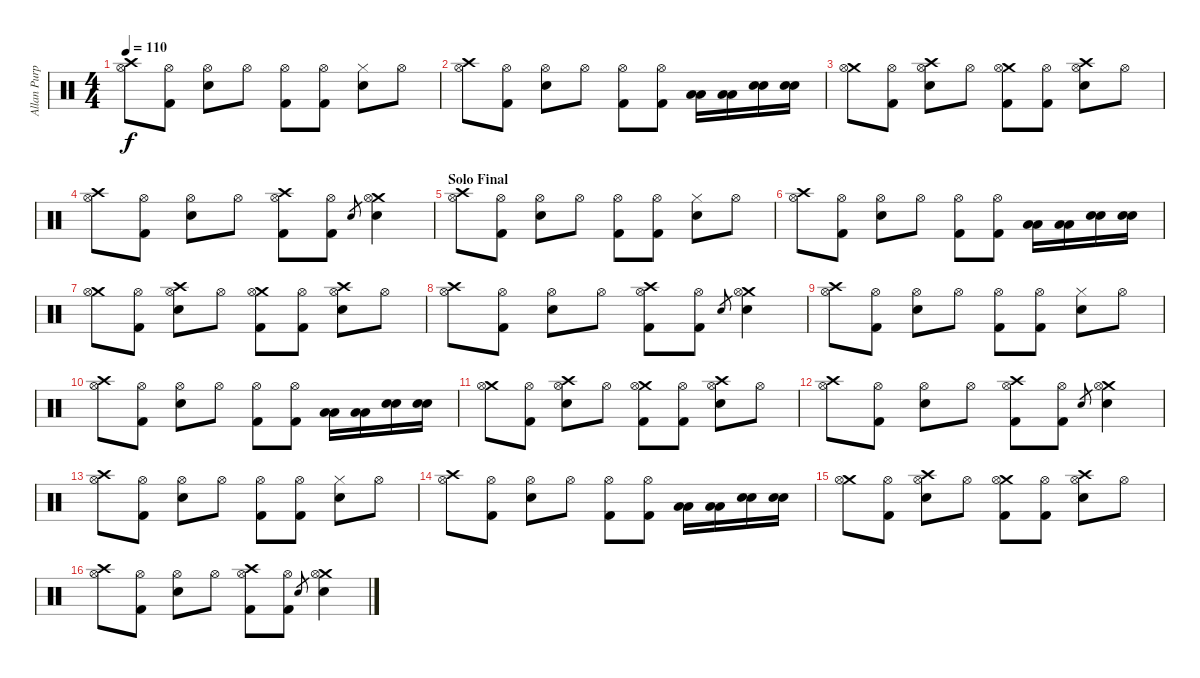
\track ("Allan Purple" "Allan Purp") {instrument percussion}
\staff {score}
\articulation defaults
\ts (4 4)
\tempo 110
\clef neutral
\ks c
("Crash high (hit)" "Hi-Hat (open)").8{dy f} ("Hi-Hat (open)" "Kick (hit) 2").8 ("Hi-Hat (open)" "Electric Snare (hit)").8 "Hi-Hat (open)".8 ("Hi-Hat (open)" "Kick (hit) 2").8 ("Hi-Hat (open)" "Kick (hit) 2").8 ("Hi-Hat (closed)" "Electric Snare (hit)").8 "Hi-Hat (open)".8 |
("Crash high (hit)" "Hi-Hat (open)").8 ("Hi-Hat (open)" "Kick (hit) 2").8 ("Hi-Hat (open)" "Electric Snare (hit)").8 "Hi-Hat (open)".8 ("Hi-Hat (open)" "Kick (hit) 2").8 ("Hi-Hat (open)" "Kick (hit) 2").8 ("Low Tom (hit)" "Low Tom (hit)").16 ("Low Tom (hit)" "Low Tom (hit)").16 ("Electric Snare (hit)" "Electric Snare (hit)").16 ("Electric Snare (hit)" "Electric Snare (hit)").16 |
("Crash medium (hit)" "Hi-Hat (open)").8 ("Hi-Hat (open)" "Kick (hit) 2").8 ("Crash high (hit)" "Hi-Hat (open)" "Electric Snare (hit)").8 "Hi-Hat (open)".8 ("Crash medium (hit)" "Hi-Hat (open)" "Kick (hit) 2").8 ("Hi-Hat (open)" "Kick (hit) 2").8 ("Crash high (hit)" "Hi-Hat (open)" "Electric Snare (hit)").8 "Hi-Hat (open)".8 |
("Crash high (hit)" "Hi-Hat (open)").8 ("Hi-Hat (open)" "Kick (hit) 2").8 ("Hi-Hat (open)" "Electric Snare (hit)").8 "Hi-Hat (open)".8 ("Crash high (hit)" "Hi-Hat (open)" "Kick (hit) 2").8 ("Hi-Hat (open)" "Kick (hit) 2").8 "Electric Snare (hit)".8{gr} ("Crash medium (hit)" "Hi-Hat (open)" "Electric Snare (hit)").4 |
\section ("" "Solo Final")
("Crash high (hit)" "Hi-Hat (open)").8 ("Hi-Hat (open)" "Kick (hit) 2").8 ("Hi-Hat (open)" "Electric Snare (hit)").8 "Hi-Hat (open)".8 ("Hi-Hat (open)" "Kick (hit) 2").8 ("Hi-Hat (open)" "Kick (hit) 2").8 ("Hi-Hat (closed)" "Electric Snare (hit)").8 "Hi-Hat (open)".8 |
("Crash high (hit)" "Hi-Hat (open)").8 ("Hi-Hat (open)" "Kick (hit) 2").8 ("Hi-Hat (open)" "Electric Snare (hit)").8 "Hi-Hat (open)".8 ("Hi-Hat (open)" "Kick (hit) 2").8 ("Hi-Hat (open)" "Kick (hit) 2").8 ("Low Tom (hit)" "Low Tom (hit)").16 ("Low Tom (hit)" "Low Tom (hit)").16 ("Electric Snare (hit)" "Electric Snare (hit)").16 ("Electric Snare (hit)" "Electric Snare (hit)").16 |
("Crash medium (hit)" "Hi-Hat (open)").8 ("Hi-Hat (open)" "Kick (hit) 2").8 ("Crash high (hit)" "Hi-Hat (open)" "Electric Snare (hit)").8 "Hi-Hat (open)".8 ("Crash medium (hit)" "Hi-Hat (open)" "Kick (hit) 2").8 ("Hi-Hat (open)" "Kick (hit) 2").8 ("Crash high (hit)" "Hi-Hat (open)" "Electric Snare (hit)").8 "Hi-Hat (open)".8 |
("Crash high (hit)" "Hi-Hat (open)").8 ("Hi-Hat (open)" "Kick (hit) 2").8 ("Hi-Hat (open)" "Electric Snare (hit)").8 "Hi-Hat (open)".8 ("Crash high (hit)" "Hi-Hat (open)" "Kick (hit) 2").8 ("Hi-Hat (open)" "Kick (hit) 2").8 "Electric Snare (hit)".8{gr} ("Crash medium (hit)" "Hi-Hat (open)" "Electric Snare (hit)").4 |
("Crash high (hit)" "Hi-Hat (open)").8 ("Hi-Hat (open)" "Kick (hit) 2").8 ("Hi-Hat (open)" "Electric Snare (hit)").8 "Hi-Hat (open)".8 ("Hi-Hat (open)" "Kick (hit) 2").8 ("Hi-Hat (open)" "Kick (hit) 2").8 ("Hi-Hat (closed)" "Electric Snare (hit)").8 "Hi-Hat (open)".8 |
("Crash high (hit)" "Hi-Hat (open)").8 ("Hi-Hat (open)" "Kick (hit) 2").8 ("Hi-Hat (open)" "Electric Snare (hit)").8 "Hi-Hat (open)".8 ("Hi-Hat (open)" "Kick (hit) 2").8 ("Hi-Hat (open)" "Kick (hit) 2").8 ("Low Tom (hit)" "Low Tom (hit)").16 ("Low Tom (hit)" "Low Tom (hit)").16 ("Electric Snare (hit)" "Electric Snare (hit)").16 ("Electric Snare (hit)" "Electric Snare (hit)").16 |
("Crash medium (hit)" "Hi-Hat (open)").8 ("Hi-Hat (open)" "Kick (hit) 2").8 ("Crash high (hit)" "Hi-Hat (open)" "Electric Snare (hit)").8 "Hi-Hat (open)".8 ("Crash medium (hit)" "Hi-Hat (open)" "Kick (hit) 2").8 ("Hi-Hat (open)" "Kick (hit) 2").8 ("Crash high (hit)" "Hi-Hat (open)" "Electric Snare (hit)").8 "Hi-Hat (open)".8 |
("Crash high (hit)" "Hi-Hat (open)").8 ("Hi-Hat (open)" "Kick (hit) 2").8 ("Hi-Hat (open)" "Electric Snare (hit)").8 "Hi-Hat (open)".8 ("Crash high (hit)" "Hi-Hat (open)" "Kick (hit) 2").8 ("Hi-Hat (open)" "Kick (hit) 2").8 "Electric Snare (hit)".8{gr} ("Crash medium (hit)" "Hi-Hat (open)" "Electric Snare (hit)").4 |
("Crash high (hit)" "Hi-Hat (open)").8 ("Hi-Hat (open)" "Kick (hit) 2").8 ("Hi-Hat (open)" "Electric Snare (hit)").8 "Hi-Hat (open)".8 ("Hi-Hat (open)" "Kick (hit) 2").8 ("Hi-Hat (open)" "Kick (hit) 2").8 ("Hi-Hat (closed)" "Electric Snare (hit)").8 "Hi-Hat (open)".8 |
("Crash high (hit)" "Hi-Hat (open)").8 ("Hi-Hat (open)" "Kick (hit) 2").8 ("Hi-Hat (open)" "Electric Snare (hit)").8 "Hi-Hat (open)".8 ("Hi-Hat (open)" "Kick (hit) 2").8 ("Hi-Hat (open)" "Kick (hit) 2").8 ("Low Tom (hit)" "Low Tom (hit)").16 ("Low Tom (hit)" "Low Tom (hit)").16 ("Electric Snare (hit)" "Electric Snare (hit)").16 ("Electric Snare (hit)" "Electric Snare (hit)").16 |
("Crash medium (hit)" "Hi-Hat (open)").8 ("Hi-Hat (open)" "Kick (hit) 2").8 ("Crash high (hit)" "Hi-Hat (open)" "Electric Snare (hit)").8 "Hi-Hat (open)".8 ("Crash medium (hit)" "Hi-Hat (open)" "Kick (hit) 2").8 ("Hi-Hat (open)" "Kick (hit) 2").8 ("Crash high (hit)" "Hi-Hat (open)" "Electric Snare (hit)").8 "Hi-Hat (open)".8 |
("Crash high (hit)" "Hi-Hat (open)").8 ("Hi-Hat (open)" "Kick (hit) 2").8 ("Hi-Hat (open)" "Electric Snare (hit)").8 "Hi-Hat (open)".8 ("Crash high (hit)" "Hi-Hat (open)" "Kick (hit) 2").8 ("Hi-Hat (open)" "Kick (hit) 2").8 "Electric Snare (hit)".8{gr} ("Crash medium (hit)" "Hi-Hat (open)" "Electric Snare (hit)").4
